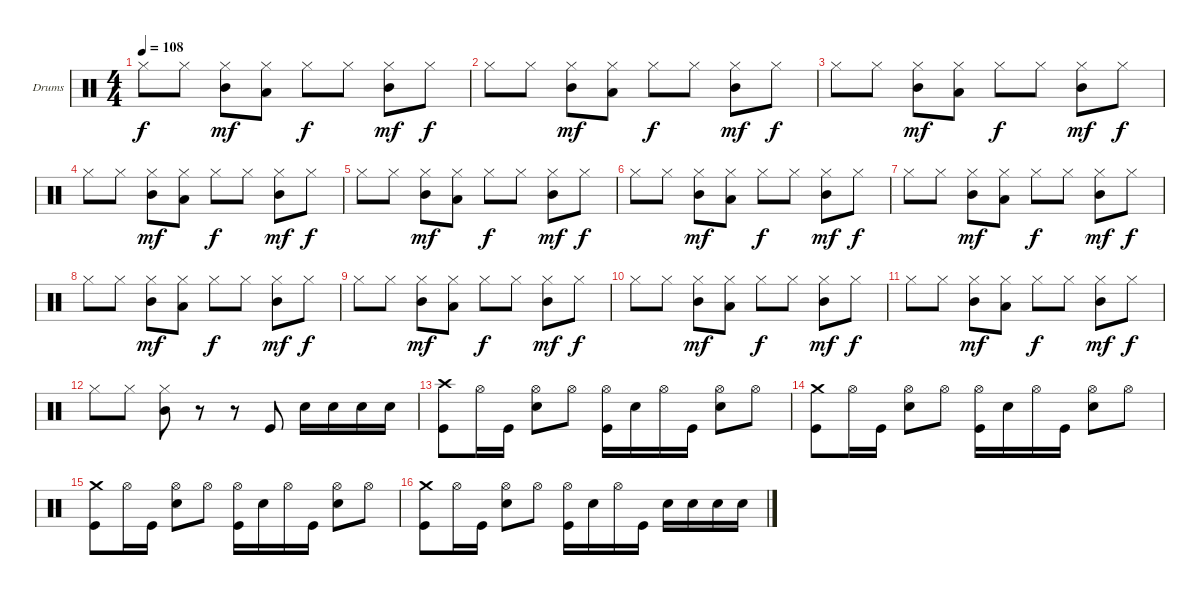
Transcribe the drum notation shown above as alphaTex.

\defaultSystemsLayout 4
\bracketExtendMode groupsimilarinstruments
\firstSystemTrackNameOrientation horizontal
\otherSystemsTrackNameOrientation horizontal
\track ("Drumkit" "Drums") {instrument percussion}
\staff {score}
\articulation defaults
\ts (4 4)
\tempo 108
\clef neutral
\ks c "Hi-Hat (closed)".8{dy f} "Hi-Hat (closed)".8
("Hi-Hat (closed)" "Mid Tom (hit)").8{dy mf} ("Hi-Hat (closed)" "Low Tom (hit)").8 "Hi-Hat (closed)".8{dy f} "Hi-Hat (closed)".8 ("Hi-Hat (closed)" "Mid Tom (hit)").8{dy mf} "Hi-Hat (closed)".8{dy f} |
"Hi-Hat (closed)".8 "Hi-Hat (closed)".8 ("Hi-Hat (closed)" "Mid Tom (hit)").8{dy mf} ("Hi-Hat (closed)" "Low Tom (hit)").8 "Hi-Hat (closed)".8{dy f} "Hi-Hat (closed)".8 ("Hi-Hat (closed)" "Mid Tom (hit)").8{dy mf} "Hi-Hat (closed)".8{dy f} |
"Hi-Hat (closed)".8 "Hi-Hat (closed)".8 ("Hi-Hat (closed)" "Mid Tom (hit)").8{dy mf} ("Hi-Hat (closed)" "Low Tom (hit)").8 "Hi-Hat (closed)".8{dy f} "Hi-Hat (closed)".8 ("Hi-Hat (closed)" "Mid Tom (hit)").8{dy mf} "Hi-Hat (closed)".8{dy f} |
"Hi-Hat (closed)".8 "Hi-Hat (closed)".8 ("Hi-Hat (closed)" "Mid Tom (hit)").8{dy mf} ("Hi-Hat (closed)" "Low Tom (hit)").8 "Hi-Hat (closed)".8{dy f} "Hi-Hat (closed)".8 ("Hi-Hat (closed)" "Mid Tom (hit)").8{dy mf} "Hi-Hat (closed)".8{dy f} |
"Hi-Hat (closed)".8 "Hi-Hat (closed)".8 ("Hi-Hat (closed)" "Mid Tom (hit)").8{dy mf} ("Hi-Hat (closed)" "Low Tom (hit)").8 "Hi-Hat (closed)".8{dy f} "Hi-Hat (closed)".8 ("Hi-Hat (closed)" "Mid Tom (hit)").8{dy mf} "Hi-Hat (closed)".8{dy f} |
"Hi-Hat (closed)".8 "Hi-Hat (closed)".8 ("Hi-Hat (closed)" "Mid Tom (hit)").8{dy mf} ("Hi-Hat (closed)" "Low Tom (hit)").8 "Hi-Hat (closed)".8{dy f} "Hi-Hat (closed)".8 ("Hi-Hat (closed)" "Mid Tom (hit)").8{dy mf} "Hi-Hat (closed)".8{dy f} |
"Hi-Hat (closed)".8 "Hi-Hat (closed)".8 ("Hi-Hat (closed)" "Mid Tom (hit)").8{dy mf} ("Hi-Hat (closed)" "Low Tom (hit)").8 "Hi-Hat (closed)".8{dy f} "Hi-Hat (closed)".8 ("Hi-Hat (closed)" "Mid Tom (hit)").8{dy mf} "Hi-Hat (closed)".8{dy f} |
"Hi-Hat (closed)".8 "Hi-Hat (closed)".8 ("Hi-Hat (closed)" "Mid Tom (hit)").8{dy mf} ("Hi-Hat (closed)" "Low Tom (hit)").8 "Hi-Hat (closed)".8{dy f} "Hi-Hat (closed)".8 ("Hi-Hat (closed)" "Mid Tom (hit)").8{dy mf} "Hi-Hat (closed)".8{dy f} |
"Hi-Hat (closed)".8 "Hi-Hat (closed)".8 ("Hi-Hat (closed)" "Mid Tom (hit)").8{dy mf} ("Hi-Hat (closed)" "Low Tom (hit)").8 "Hi-Hat (closed)".8{dy f} "Hi-Hat (closed)".8 ("Hi-Hat (closed)" "Mid Tom (hit)").8{dy mf} "Hi-Hat (closed)".8{dy f} |
"Hi-Hat (closed)".8 "Hi-Hat (closed)".8 ("Hi-Hat (closed)" "Mid Tom (hit)").8{dy mf} ("Hi-Hat (closed)" "Low Tom (hit)").8 "Hi-Hat (closed)".8{dy f} "Hi-Hat (closed)".8 ("Hi-Hat (closed)" "Mid Tom (hit)").8{dy mf} "Hi-Hat (closed)".8{dy f} |
"Hi-Hat (closed)".8 "Hi-Hat (closed)".8 ("Hi-Hat (closed)" "Mid Tom (hit)").8{dy mf} ("Hi-Hat (closed)" "Low Tom (hit)").8 "Hi-Hat (closed)".8{dy f} "Hi-Hat (closed)".8 ("Hi-Hat (closed)" "Mid Tom (hit)").8{dy mf} "Hi-Hat (closed)".8{dy f} |
"Hi-Hat (closed)".8 "Hi-Hat (closed)".8 ("Hi-Hat (closed)" "Mid Tom (hit)").8 r.8 r.8 "Kick (hit)".8 "Snare (hit) 2".16 "Snare (hit) 2".16 "Snare (hit) 2".16 "Snare (hit) 2".16 |
("Kick (hit)" "Crash high (hit)").8 "Hi-Hat (open)".16 "Kick (hit)".16 ("Hi-Hat (open)" "Snare (hit) 2").8 "Hi-Hat (open)".8 ("Hi-Hat (open)" "Kick (hit)").16 "Snare (hit) 2".16 "Hi-Hat (open)".16 "Kick (hit)".16 ("Hi-Hat (open)" "Snare (hit) 2").8 "Hi-Hat (open)".8 |
("Kick (hit)" "Crash medium (hit)").8 "Hi-Hat (open)".16 "Kick (hit)".16 ("Hi-Hat (open)" "Snare (hit) 2").8 "Hi-Hat (open)".8 ("Hi-Hat (open)" "Kick (hit)").16 "Snare (hit) 2".16 "Hi-Hat (open)".16 "Kick (hit)".16 ("Hi-Hat (open)" "Snare (hit) 2").8 "Hi-Hat (open)".8 |
("Kick (hit)" "Crash medium (hit)").8 "Hi-Hat (open)".16 "Kick (hit)".16 ("Hi-Hat (open)" "Snare (hit) 2").8 "Hi-Hat (open)".8 ("Hi-Hat (open)" "Kick (hit)").16 "Snare (hit) 2".16 "Hi-Hat (open)".16 "Kick (hit)".16 ("Hi-Hat (open)" "Snare (hit) 2").8 "Hi-Hat (open)".8 |
("Kick (hit)" "Crash medium (hit)").8 "Hi-Hat (open)".16 "Kick (hit)".16 ("Hi-Hat (open)" "Snare (hit) 2").8 "Hi-Hat (open)".8 ("Hi-Hat (open)" "Kick (hit)").16 "Snare (hit) 2".16 "Hi-Hat (open)".16 "Kick (hit)".16 "Snare (hit) 2".16 "Snare (hit) 2".16 "Snare (hit) 2".16 "Snare (hit) 2".16
